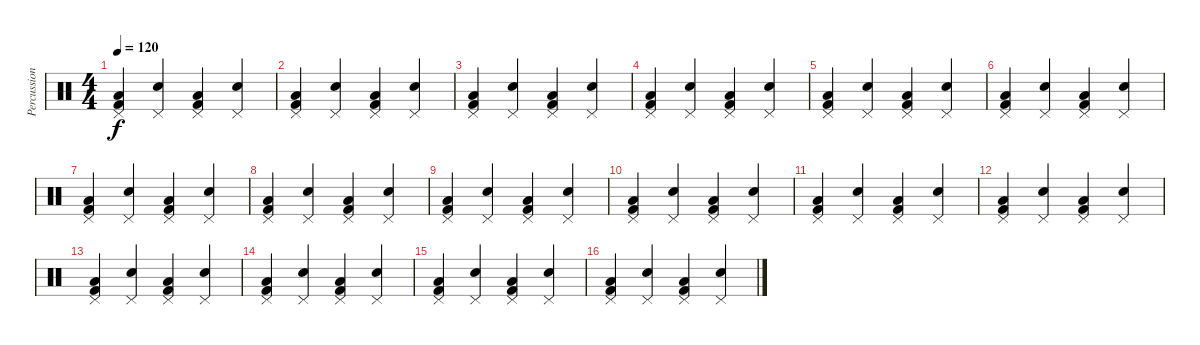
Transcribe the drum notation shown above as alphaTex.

\track ("Percussions" "Percussion") {instrument percussion}
\staff {score}
\articulation defaults
\ts (4 4)
\tempo 120
\clef neutral
\ks c
("Pedal Hi-Hat (hit)" "Kick (hit) 2" "Low Floor Tom (hit)").4{dy f} ("Pedal Hi-Hat (hit)" "Electric Snare (hit)").4 ("Pedal Hi-Hat (hit)" "Kick (hit) 2" "Low Floor Tom (hit)").4 ("Pedal Hi-Hat (hit)" "Electric Snare (hit)").4 |
("Pedal Hi-Hat (hit)" "Kick (hit) 2" "Low Floor Tom (hit)").4 ("Pedal Hi-Hat (hit)" "Electric Snare (hit)").4 ("Pedal Hi-Hat (hit)" "Kick (hit) 2" "Low Floor Tom (hit)").4 ("Pedal Hi-Hat (hit)" "Electric Snare (hit)").4 |
("Pedal Hi-Hat (hit)" "Kick (hit) 2" "Low Floor Tom (hit)").4 ("Pedal Hi-Hat (hit)" "Electric Snare (hit)").4 ("Pedal Hi-Hat (hit)" "Kick (hit) 2" "Low Floor Tom (hit)").4 ("Pedal Hi-Hat (hit)" "Electric Snare (hit)").4 |
("Pedal Hi-Hat (hit)" "Kick (hit) 2" "Low Floor Tom (hit)").4 ("Pedal Hi-Hat (hit)" "Electric Snare (hit)").4 ("Pedal Hi-Hat (hit)" "Kick (hit) 2" "Low Floor Tom (hit)").4 ("Pedal Hi-Hat (hit)" "Electric Snare (hit)").4 |
("Pedal Hi-Hat (hit)" "Kick (hit) 2" "Low Floor Tom (hit)").4 ("Pedal Hi-Hat (hit)" "Electric Snare (hit)").4 ("Pedal Hi-Hat (hit)" "Kick (hit) 2" "Low Floor Tom (hit)").4 ("Pedal Hi-Hat (hit)" "Electric Snare (hit)").4 |
("Pedal Hi-Hat (hit)" "Kick (hit) 2" "Low Floor Tom (hit)").4 ("Pedal Hi-Hat (hit)" "Electric Snare (hit)").4 ("Pedal Hi-Hat (hit)" "Kick (hit) 2" "Low Floor Tom (hit)").4 ("Pedal Hi-Hat (hit)" "Electric Snare (hit)").4 |
("Pedal Hi-Hat (hit)" "Kick (hit) 2" "Low Floor Tom (hit)").4 ("Pedal Hi-Hat (hit)" "Electric Snare (hit)").4 ("Pedal Hi-Hat (hit)" "Kick (hit) 2" "Low Floor Tom (hit)").4 ("Pedal Hi-Hat (hit)" "Electric Snare (hit)").4 |
("Pedal Hi-Hat (hit)" "Kick (hit) 2" "Low Floor Tom (hit)").4 ("Pedal Hi-Hat (hit)" "Electric Snare (hit)").4 ("Pedal Hi-Hat (hit)" "Kick (hit) 2" "Low Floor Tom (hit)").4 ("Pedal Hi-Hat (hit)" "Electric Snare (hit)").4 |
("Pedal Hi-Hat (hit)" "Kick (hit) 2" "Low Floor Tom (hit)").4 ("Pedal Hi-Hat (hit)" "Electric Snare (hit)").4 ("Pedal Hi-Hat (hit)" "Kick (hit) 2" "Low Floor Tom (hit)").4 ("Pedal Hi-Hat (hit)" "Electric Snare (hit)").4 |
("Pedal Hi-Hat (hit)" "Kick (hit) 2" "Low Floor Tom (hit)").4 ("Pedal Hi-Hat (hit)" "Electric Snare (hit)").4 ("Pedal Hi-Hat (hit)" "Kick (hit) 2" "Low Floor Tom (hit)").4 ("Pedal Hi-Hat (hit)" "Electric Snare (hit)").4 |
("Pedal Hi-Hat (hit)" "Kick (hit) 2" "Low Floor Tom (hit)").4 ("Pedal Hi-Hat (hit)" "Electric Snare (hit)").4 ("Pedal Hi-Hat (hit)" "Kick (hit) 2" "Low Floor Tom (hit)").4 ("Pedal Hi-Hat (hit)" "Electric Snare (hit)").4 |
("Pedal Hi-Hat (hit)" "Kick (hit) 2" "Low Floor Tom (hit)").4 ("Pedal Hi-Hat (hit)" "Electric Snare (hit)").4 ("Pedal Hi-Hat (hit)" "Kick (hit) 2" "Low Floor Tom (hit)").4 ("Pedal Hi-Hat (hit)" "Electric Snare (hit)").4 |
("Pedal Hi-Hat (hit)" "Kick (hit) 2" "Low Floor Tom (hit)").4 ("Pedal Hi-Hat (hit)" "Electric Snare (hit)").4 ("Pedal Hi-Hat (hit)" "Kick (hit) 2" "Low Floor Tom (hit)").4 ("Pedal Hi-Hat (hit)" "Electric Snare (hit)").4 |
("Pedal Hi-Hat (hit)" "Kick (hit) 2" "Low Floor Tom (hit)").4 ("Pedal Hi-Hat (hit)" "Electric Snare (hit)").4 ("Pedal Hi-Hat (hit)" "Kick (hit) 2" "Low Floor Tom (hit)").4 ("Pedal Hi-Hat (hit)" "Electric Snare (hit)").4 |
("Pedal Hi-Hat (hit)" "Kick (hit) 2" "Low Floor Tom (hit)").4 ("Pedal Hi-Hat (hit)" "Electric Snare (hit)").4 ("Pedal Hi-Hat (hit)" "Kick (hit) 2" "Low Floor Tom (hit)").4 ("Pedal Hi-Hat (hit)" "Electric Snare (hit)").4 |
("Pedal Hi-Hat (hit)" "Kick (hit) 2" "Low Floor Tom (hit)").4 ("Pedal Hi-Hat (hit)" "Electric Snare (hit)").4 ("Pedal Hi-Hat (hit)" "Kick (hit) 2" "Low Floor Tom (hit)").4 ("Pedal Hi-Hat (hit)" "Electric Snare (hit)").4
